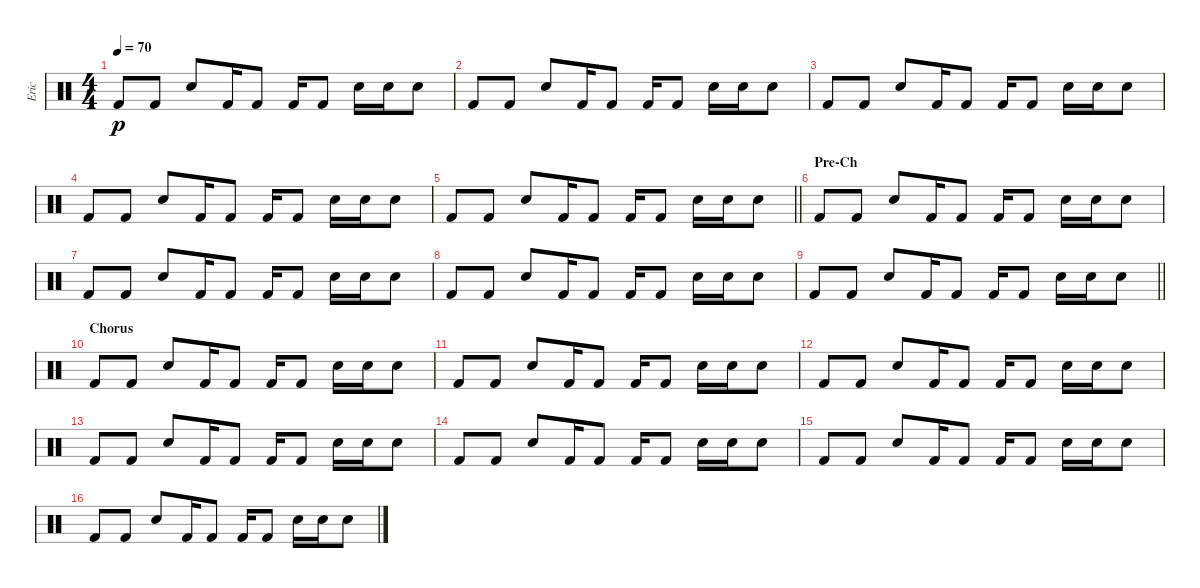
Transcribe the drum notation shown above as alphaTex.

\track ("Eric" "Eric") {instrument percussion}
\staff {score}
\articulation defaults
\ts (4 4)
\tempo 70
\clef neutral
\ks c "Kick (hit) 2".8{dy p} "Kick (hit) 2".8 "Electric Snare (hit)".8 "Kick (hit) 2".16 "Kick (hit) 2".8 "Kick (hit) 2".16 "Kick (hit) 2".8 "Electric Snare (hit)".16 "Electric Snare (hit)".16 "Electric Snare (hit)".8
|
"Kick (hit) 2".8 "Kick (hit) 2".8 "Electric Snare (hit)".8 "Kick (hit) 2".16 "Kick (hit) 2".8 "Kick (hit) 2".16 "Kick (hit) 2".8 "Electric Snare (hit)".16 "Electric Snare (hit)".16 "Electric Snare (hit)".8 |
"Kick (hit) 2".8 "Kick (hit) 2".8 "Electric Snare (hit)".8 "Kick (hit) 2".16 "Kick (hit) 2".8 "Kick (hit) 2".16 "Kick (hit) 2".8 "Electric Snare (hit)".16 "Electric Snare (hit)".16 "Electric Snare (hit)".8 |
"Kick (hit) 2".8 "Kick (hit) 2".8 "Electric Snare (hit)".8 "Kick (hit) 2".16 "Kick (hit) 2".8 "Kick (hit) 2".16 "Kick (hit) 2".8 "Electric Snare (hit)".16 "Electric Snare (hit)".16 "Electric Snare (hit)".8 |
\barLineRight lightlight "Kick (hit) 2".8 "Kick (hit) 2".8 "Electric Snare (hit)".8 "Kick (hit) 2".16 "Kick (hit) 2".8 "Kick (hit) 2".16 "Kick (hit) 2".8 "Electric Snare (hit)".16 "Electric Snare (hit)".16 "Electric Snare (hit)".8
|
\section ("" "Pre-Ch")
"Kick (hit) 2".8 "Kick (hit) 2".8 "Electric Snare (hit)".8 "Kick (hit) 2".16 "Kick (hit) 2".8 "Kick (hit) 2".16 "Kick (hit) 2".8 "Electric Snare (hit)".16 "Electric Snare (hit)".16 "Electric Snare (hit)".8 |
"Kick (hit) 2".8 "Kick (hit) 2".8 "Electric Snare (hit)".8 "Kick (hit) 2".16 "Kick (hit) 2".8 "Kick (hit) 2".16 "Kick (hit) 2".8 "Electric Snare (hit)".16 "Electric Snare (hit)".16 "Electric Snare (hit)".8 |
"Kick (hit) 2".8 "Kick (hit) 2".8 "Electric Snare (hit)".8 "Kick (hit) 2".16 "Kick (hit) 2".8 "Kick (hit) 2".16 "Kick (hit) 2".8 "Electric Snare (hit)".16 "Electric Snare (hit)".16 "Electric Snare (hit)".8 |
\barLineRight lightlight "Kick (hit) 2".8 "Kick (hit) 2".8 "Electric Snare (hit)".8 "Kick (hit) 2".16 "Kick (hit) 2".8 "Kick (hit) 2".16 "Kick (hit) 2".8 "Electric Snare (hit)".16 "Electric Snare (hit)".16 "Electric Snare (hit)".8
|
\section ("" "Chorus")
"Kick (hit) 2".8 "Kick (hit) 2".8 "Electric Snare (hit)".8 "Kick (hit) 2".16 "Kick (hit) 2".8 "Kick (hit) 2".16 "Kick (hit) 2".8 "Electric Snare (hit)".16 "Electric Snare (hit)".16 "Electric Snare (hit)".8 |
"Kick (hit) 2".8 "Kick (hit) 2".8 "Electric Snare (hit)".8 "Kick (hit) 2".16 "Kick (hit) 2".8 "Kick (hit) 2".16 "Kick (hit) 2".8 "Electric Snare (hit)".16 "Electric Snare (hit)".16 "Electric Snare (hit)".8 |
"Kick (hit) 2".8 "Kick (hit) 2".8 "Electric Snare (hit)".8 "Kick (hit) 2".16 "Kick (hit) 2".8 "Kick (hit) 2".16 "Kick (hit) 2".8 "Electric Snare (hit)".16 "Electric Snare (hit)".16 "Electric Snare (hit)".8 |
"Kick (hit) 2".8 "Kick (hit) 2".8 "Electric Snare (hit)".8 "Kick (hit) 2".16 "Kick (hit) 2".8 "Kick (hit) 2".16 "Kick (hit) 2".8 "Electric Snare (hit)".16 "Electric Snare (hit)".16 "Electric Snare (hit)".8 |
"Kick (hit) 2".8 "Kick (hit) 2".8 "Electric Snare (hit)".8 "Kick (hit) 2".16 "Kick (hit) 2".8 "Kick (hit) 2".16 "Kick (hit) 2".8 "Electric Snare (hit)".16 "Electric Snare (hit)".16 "Electric Snare (hit)".8 |
"Kick (hit) 2".8 "Kick (hit) 2".8 "Electric Snare (hit)".8 "Kick (hit) 2".16 "Kick (hit) 2".8 "Kick (hit) 2".16 "Kick (hit) 2".8 "Electric Snare (hit)".16 "Electric Snare (hit)".16 "Electric Snare (hit)".8 |
"Kick (hit) 2".8 "Kick (hit) 2".8 "Electric Snare (hit)".8 "Kick (hit) 2".16 "Kick (hit) 2".8 "Kick (hit) 2".16 "Kick (hit) 2".8 "Electric Snare (hit)".16 "Electric Snare (hit)".16 "Electric Snare (hit)".8
